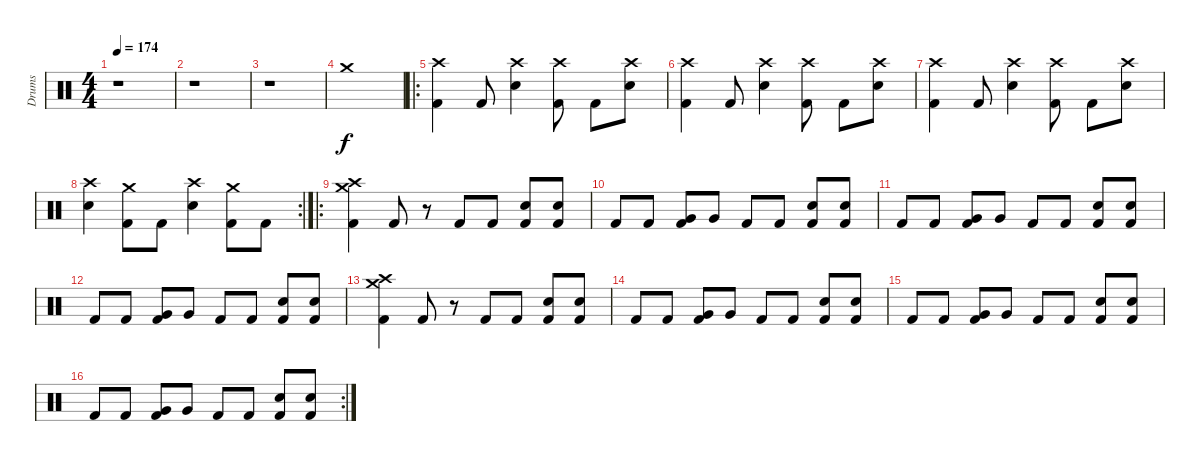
\track ("Drums" "Drums") {instrument percussion}
\staff {score}
\articulation defaults
\ts (4 4)
\tempo 174
\clef neutral
\ks c
r.1{dy f} |
r.1 |
r.1 |
"Crash medium (hit)".1 |
\ro
("Crash high (hit)" "Kick (hit) 2").4 "Kick (hit) 2".8 ("Crash high (hit)" "Snare (hit) 2").4 ("Crash high (hit)" "Kick (hit) 2").8 "Kick (hit) 2".8 ("Crash high (hit)" "Snare (hit) 2").8 |
("Crash high (hit)" "Kick (hit) 2").4 "Kick (hit) 2".8 ("Crash high (hit)" "Snare (hit) 2").4 ("Crash high (hit)" "Kick (hit) 2").8 "Kick (hit) 2".8 ("Crash high (hit)" "Snare (hit) 2").8 |
("Crash high (hit)" "Kick (hit) 2").4 "Kick (hit) 2".8 ("Crash high (hit)" "Snare (hit) 2").4 ("Crash high (hit)" "Kick (hit) 2").8 "Kick (hit) 2".8 ("Crash high (hit)" "Snare (hit) 2").8 |
\rc 2
("Crash high (hit)" "Snare (hit) 2").4 ("Crash medium (hit)" "Kick (hit) 2").8 "Kick (hit) 2".8 ("Crash high (hit)" "Snare (hit) 2").4 ("Crash medium (hit)" "Kick (hit) 2").8 "Kick (hit) 2".8 |
\ro
("Crash high (hit)" "Crash medium (hit)" "Kick (hit) 2").4 "Kick (hit) 2".8 r.8 "Kick (hit) 2".8 "Kick (hit) 2".8 ("Snare (hit) 2" "Kick (hit) 2").8 ("Snare (hit) 2" "Kick (hit) 2").8 |
"Kick (hit) 2".8 "Kick (hit) 2".8 ("Very Low Tom (hit)" "Kick (hit) 2").8 "Very Low Tom (hit)".8 "Kick (hit) 2".8 "Kick (hit) 2".8 ("Snare (hit) 2" "Kick (hit) 2").8 ("Snare (hit) 2" "Kick (hit) 2").8 |
"Kick (hit) 2".8 "Kick (hit) 2".8 ("Very Low Tom (hit)" "Kick (hit) 2").8 "Very Low Tom (hit)".8 "Kick (hit) 2".8 "Kick (hit) 2".8 ("Snare (hit) 2" "Kick (hit) 2").8 ("Snare (hit) 2" "Kick (hit) 2").8 |
"Kick (hit) 2".8 "Kick (hit) 2".8 ("Very Low Tom (hit)" "Kick (hit) 2").8 "Very Low Tom (hit)".8 "Kick (hit) 2".8 "Kick (hit) 2".8 ("Snare (hit) 2" "Kick (hit) 2").8 ("Snare (hit) 2" "Kick (hit) 2").8 |
("Crash high (hit)" "Crash medium (hit)" "Kick (hit) 2").4 "Kick (hit) 2".8 r.8 "Kick (hit) 2".8 "Kick (hit) 2".8 ("Snare (hit) 2" "Kick (hit) 2").8 ("Snare (hit) 2" "Kick (hit) 2").8 |
"Kick (hit) 2".8 "Kick (hit) 2".8 ("Very Low Tom (hit)" "Kick (hit) 2").8 "Very Low Tom (hit)".8 "Kick (hit) 2".8 "Kick (hit) 2".8 ("Snare (hit) 2" "Kick (hit) 2").8 ("Snare (hit) 2" "Kick (hit) 2").8 |
"Kick (hit) 2".8 "Kick (hit) 2".8 ("Very Low Tom (hit)" "Kick (hit) 2").8 "Very Low Tom (hit)".8 "Kick (hit) 2".8 "Kick (hit) 2".8 ("Snare (hit) 2" "Kick (hit) 2").8 ("Snare (hit) 2" "Kick (hit) 2").8 |
\rc 2 "Kick (hit) 2".8 "Kick (hit) 2".8
("Very Low Tom (hit)" "Kick (hit) 2").8 "Very Low Tom (hit)".8 "Kick (hit) 2".8 "Kick (hit) 2".8 ("Snare (hit) 2" "Kick (hit) 2").8 ("Snare (hit) 2" "Kick (hit) 2").8
